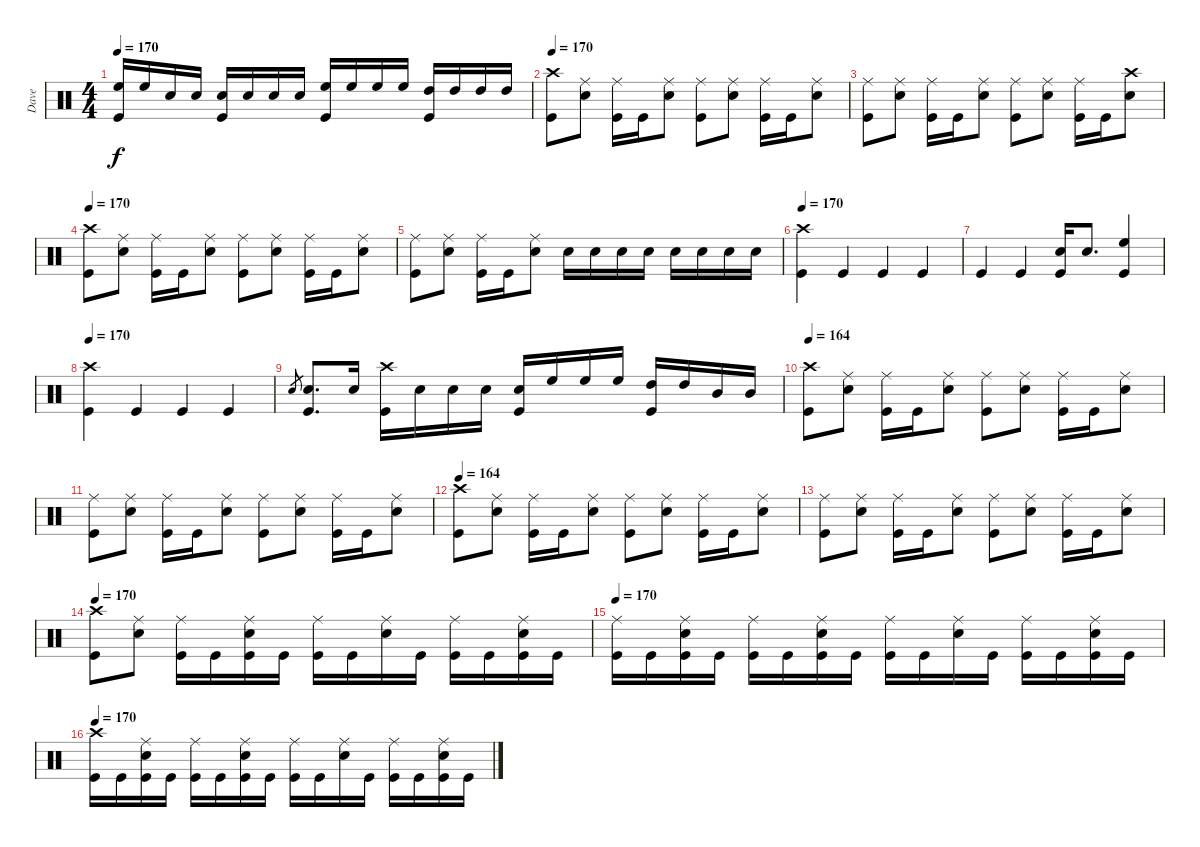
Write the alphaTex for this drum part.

\track ("Dave" "Dave") {instrument percussion}
\staff {score}
\articulation defaults
\ts (4 4)
\tempo 170
\clef neutral
\ks c
("High Floor Tom (hit)" "Kick (hit)").16{dy f} "High Floor Tom (hit)".16 "Snare (hit) 2".16 "Snare (hit) 2".16 ("Snare (hit) 2" "Kick (hit)").16 "Snare (hit) 2".16 "Snare (hit) 2".16 "Snare (hit) 2".16 ("High Floor Tom (hit)" "Kick (hit)").16 "High Floor Tom (hit)".16 "High Floor Tom (hit)".16 "High Floor Tom (hit)".16 ("High Tom (hit)" "Kick (hit)").16 "High Tom (hit)".16 "High Tom (hit)".16 "High Tom (hit)".16 |
\tempo 170
("Crash high (hit)" "Kick (hit)").8 ("Ride (middle)" "Snare (hit) 2").8 ("Ride (middle)" "Kick (hit)").16 "Kick (hit)".16 ("Ride (middle)" "Snare (hit) 2").8 ("Ride (middle)" "Kick (hit)").8 ("Ride (middle)" "Snare (hit) 2").8 ("Ride (middle)" "Kick (hit)").16 "Kick (hit)".16 ("Ride (middle)" "Snare (hit) 2").8 |
("Ride (middle)" "Kick (hit)").8 ("Ride (middle)" "Snare (hit) 2").8 ("Ride (middle)" "Kick (hit)").16 "Kick (hit)".16 ("Ride (middle)" "Snare (hit) 2").8 ("Ride (middle)" "Kick (hit)").8 ("Ride (middle)" "Snare (hit) 2").8 ("Ride (middle)" "Kick (hit)").16 "Kick (hit)".16 ("Crash high (hit)" "Snare (hit) 2").8 |
\tempo 170
("Crash high (hit)" "Kick (hit)").8 ("Ride (middle)" "Snare (hit) 2").8 ("Ride (middle)" "Kick (hit)").16 "Kick (hit)".16 ("Ride (middle)" "Snare (hit) 2").8 ("Ride (middle)" "Kick (hit)").8 ("Ride (middle)" "Snare (hit) 2").8 ("Ride (middle)" "Kick (hit)").16 "Kick (hit)".16 ("Ride (middle)" "Snare (hit) 2").8 |
("Ride (middle)" "Kick (hit)").8 ("Ride (middle)" "Snare (hit) 2").8 ("Ride (middle)" "Kick (hit)").16 "Kick (hit)".16 ("Ride (middle)" "Snare (hit) 2").8 "Snare (hit) 2".16 "Snare (hit) 2".16 "Snare (hit) 2".16 "Snare (hit) 2".16 "Snare (hit) 2".16 "Snare (hit) 2".16 "Snare (hit) 2".16 "Snare (hit) 2".16 |
\tempo 170
("Crash high (hit)" "Kick (hit)").4 "Kick (hit)".4 "Kick (hit)".4 "Kick (hit)".4 |
"Kick (hit)".4 "Kick (hit)".4 ("Snare (hit) 2" "Kick (hit)").16 "Snare (hit) 2".8{d} ("High Floor Tom (hit)" "Kick (hit)").4 |
\tempo 170
("Crash high (hit)" "Kick (hit)").4 "Kick (hit)".4 "Kick (hit)".4 "Kick (hit)".4 |
"Snare (hit) 2".8{gr} ("Snare (hit) 2" "Kick (hit)").8{d} "Snare (hit) 2".16 ("Crash high (hit)" "Kick (hit)").16 "Snare (hit) 2".16 "Snare (hit) 2".16 "Snare (hit) 2".16 ("Snare (hit) 2" "Kick (hit)").16 "High Floor Tom (hit)".16 "High Floor Tom (hit)".16 "High Floor Tom (hit)".16 ("High Tom (hit)" "Kick (hit)").16 "High Tom (hit)".16 "Mid Tom (hit)".16 "Mid Tom (hit)".16 |
\tempo 164
("Crash high (hit)" "Kick (hit)").8 ("Ride (middle)" "Snare (hit) 2").8 ("Ride (middle)" "Kick (hit)").16 "Kick (hit)".16 ("Ride (middle)" "Snare (hit) 2").8 ("Ride (middle)" "Kick (hit)").8 ("Ride (middle)" "Snare (hit) 2").8 ("Ride (middle)" "Kick (hit)").16 "Kick (hit)".16 ("Ride (middle)" "Snare (hit) 2").8 |
("Ride (middle)" "Kick (hit)").8 ("Ride (middle)" "Snare (hit) 2").8 ("Ride (middle)" "Kick (hit)").16 "Kick (hit)".16 ("Ride (middle)" "Snare (hit) 2").8 ("Ride (middle)" "Kick (hit)").8 ("Ride (middle)" "Snare (hit) 2").8 ("Ride (middle)" "Kick (hit)").16 "Kick (hit)".16 ("Ride (middle)" "Snare (hit) 2").8 |
\tempo 164
("Crash high (hit)" "Kick (hit)").8 ("Ride (middle)" "Snare (hit) 2").8 ("Ride (middle)" "Kick (hit)").16 "Kick (hit)".16 ("Ride (middle)" "Snare (hit) 2").8 ("Ride (middle)" "Kick (hit)").8 ("Ride (middle)" "Snare (hit) 2").8 ("Ride (middle)" "Kick (hit)").16 "Kick (hit)".16 ("Ride (middle)" "Snare (hit) 2").8 |
("Ride (middle)" "Kick (hit)").8 ("Ride (middle)" "Snare (hit) 2").8 ("Ride (middle)" "Kick (hit)").16 "Kick (hit)".16 ("Ride (middle)" "Snare (hit) 2").8 ("Ride (middle)" "Kick (hit)").8 ("Ride (middle)" "Snare (hit) 2").8 ("Ride (middle)" "Kick (hit)").16 "Kick (hit)".16 ("Ride (middle)" "Snare (hit) 2").8 |
\tempo 164
\tempo 170
("Crash high (hit)" "Kick (hit)").8 ("Ride (middle)" "Snare (hit) 2").8 ("Ride (middle)" "Kick (hit)").16 "Kick (hit)".16 ("Ride (middle)" "Snare (hit) 2" "Kick (hit)").16 "Kick (hit)".16 ("Ride (middle)" "Kick (hit)").16 "Kick (hit)".16 ("Ride (middle)" "Snare (hit) 2").16 "Kick (hit)".16 ("Ride (middle)" "Kick (hit)").16 "Kick (hit)".16 ("Ride (middle)" "Snare (hit) 2" "Kick (hit)").16 "Kick (hit)".16 |
\tempo 170
("Ride (middle)" "Kick (hit)").16 "Kick (hit)".16 ("Ride (middle)" "Snare (hit) 2" "Kick (hit)").16 "Kick (hit)".16 ("Ride (middle)" "Kick (hit)").16 "Kick (hit)".16 ("Ride (middle)" "Snare (hit) 2" "Kick (hit)").16 "Kick (hit)".16 ("Ride (middle)" "Kick (hit)").16 "Kick (hit)".16 ("Ride (middle)" "Snare (hit) 2").16 "Kick (hit)".16 ("Ride (middle)" "Kick (hit)").16 "Kick (hit)".16 ("Ride (middle)" "Snare (hit) 2" "Kick (hit)").16 "Kick (hit)".16 |
\tempo 164
\tempo 170
("Crash high (hit)" "Kick (hit)").16 "Kick (hit)".16 ("Ride (middle)" "Snare (hit) 2" "Kick (hit)").16 "Kick (hit)".16 ("Ride (middle)" "Kick (hit)").16 "Kick (hit)".16 ("Ride (middle)" "Snare (hit) 2" "Kick (hit)").16 "Kick (hit)".16 ("Ride (middle)" "Kick (hit)").16 "Kick (hit)".16 ("Ride (middle)" "Snare (hit) 2").16 "Kick (hit)".16 ("Ride (middle)" "Kick (hit)").16 "Kick (hit)".16 ("Ride (middle)" "Snare (hit) 2" "Kick (hit)").16 "Kick (hit)".16
